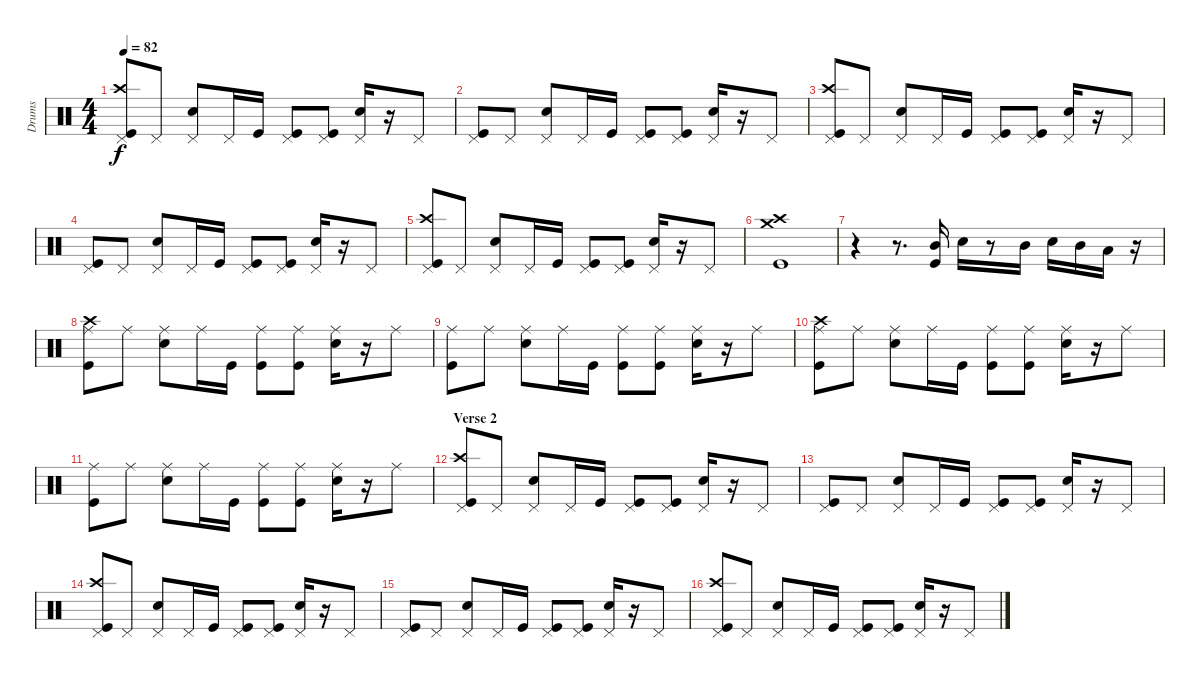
\track ("Drums" "Drums") {instrument percussion}
\staff {score}
\articulation defaults
\ts (4 4)
\tempo 82
\clef neutral
\ks c
("Kick (hit)" "Crash high (hit)" "Pedal Hi-Hat (hit)").8{dy f} "Pedal Hi-Hat (hit)".8 ("Electric Snare (hit)" "Pedal Hi-Hat (hit)").8 "Pedal Hi-Hat (hit)".16 "Kick (hit)".16 ("Kick (hit)" "Pedal Hi-Hat (hit)").8 ("Kick (hit)" "Pedal Hi-Hat (hit)").8 ("Electric Snare (hit)" "Pedal Hi-Hat (hit)").16 r.16 "Pedal Hi-Hat (hit)".8 |
("Kick (hit)" "Pedal Hi-Hat (hit)").8 "Pedal Hi-Hat (hit)".8 ("Electric Snare (hit)" "Pedal Hi-Hat (hit)").8 "Pedal Hi-Hat (hit)".16 "Kick (hit)".16 ("Kick (hit)" "Pedal Hi-Hat (hit)").8 ("Kick (hit)" "Pedal Hi-Hat (hit)").8 ("Electric Snare (hit)" "Pedal Hi-Hat (hit)").16 r.16 "Pedal Hi-Hat (hit)".8 |
("Kick (hit)" "Crash high (hit)" "Pedal Hi-Hat (hit)").8 "Pedal Hi-Hat (hit)".8 ("Electric Snare (hit)" "Pedal Hi-Hat (hit)").8 "Pedal Hi-Hat (hit)".16 "Kick (hit)".16 ("Kick (hit)" "Pedal Hi-Hat (hit)").8 ("Kick (hit)" "Pedal Hi-Hat (hit)").8 ("Electric Snare (hit)" "Pedal Hi-Hat (hit)").16 r.16 "Pedal Hi-Hat (hit)".8 |
("Kick (hit)" "Pedal Hi-Hat (hit)").8 "Pedal Hi-Hat (hit)".8 ("Electric Snare (hit)" "Pedal Hi-Hat (hit)").8 "Pedal Hi-Hat (hit)".16 "Kick (hit)".16 ("Kick (hit)" "Pedal Hi-Hat (hit)").8 ("Kick (hit)" "Pedal Hi-Hat (hit)").8 ("Electric Snare (hit)" "Pedal Hi-Hat (hit)").16 r.16 "Pedal Hi-Hat (hit)".8 |
("Kick (hit)" "Crash high (hit)" "Pedal Hi-Hat (hit)").8 "Pedal Hi-Hat (hit)".8 ("Electric Snare (hit)" "Pedal Hi-Hat (hit)").8 "Pedal Hi-Hat (hit)".16 "Kick (hit)".16 ("Kick (hit)" "Pedal Hi-Hat (hit)").8 ("Kick (hit)" "Pedal Hi-Hat (hit)").8 ("Electric Snare (hit)" "Pedal Hi-Hat (hit)").16 r.16 "Pedal Hi-Hat (hit)".8 |
("Kick (hit)" "Crash high (hit)" "Crash medium (hit)").1 |
r.4 r.8{d} ("Kick (hit)" "Mid Tom (hit)").16 "Electric Snare (hit)".16 r.8 "Mid Tom (hit)".16 "Electric Snare (hit)".16 "Mid Tom (hit)".16 "Low Tom (hit)".16 r.16 |
("Kick (hit)" "Crash high (hit)" "Ride (middle)").8 "Ride (middle)".8 ("Electric Snare (hit)" "Ride (middle)").8 "Ride (middle)".16 "Kick (hit)".16 ("Kick (hit)" "Ride (middle)").8 ("Kick (hit)" "Ride (middle)").8 ("Electric Snare (hit)" "Ride (middle)").16 r.16 "Ride (middle)".8 |
("Kick (hit)" "Ride (middle)").8 "Ride (middle)".8 ("Electric Snare (hit)" "Ride (middle)").8 "Ride (middle)".16 "Kick (hit)".16 ("Kick (hit)" "Ride (middle)").8 ("Kick (hit)" "Ride (middle)").8 ("Electric Snare (hit)" "Ride (middle)").16 r.16 "Ride (middle)".8 |
("Kick (hit)" "Crash high (hit)" "Ride (middle)").8 "Ride (middle)".8 ("Electric Snare (hit)" "Ride (middle)").8 "Ride (middle)".16 "Kick (hit)".16 ("Kick (hit)" "Ride (middle)").8 ("Kick (hit)" "Ride (middle)").8 ("Electric Snare (hit)" "Ride (middle)").16 r.16 "Ride (middle)".8 |
("Kick (hit)" "Ride (middle)").8 "Ride (middle)".8 ("Electric Snare (hit)" "Ride (middle)").8 "Ride (middle)".16 "Kick (hit)".16 ("Kick (hit)" "Ride (middle)").8 ("Kick (hit)" "Ride (middle)").8 ("Electric Snare (hit)" "Ride (middle)").16 r.16 "Ride (middle)".8 |
\section ("" "Verse 2")
("Kick (hit)" "Crash high (hit)" "Pedal Hi-Hat (hit)").8 "Pedal Hi-Hat (hit)".8 ("Electric Snare (hit)" "Pedal Hi-Hat (hit)").8 "Pedal Hi-Hat (hit)".16 "Kick (hit)".16 ("Kick (hit)" "Pedal Hi-Hat (hit)").8 ("Kick (hit)" "Pedal Hi-Hat (hit)").8 ("Electric Snare (hit)" "Pedal Hi-Hat (hit)").16 r.16 "Pedal Hi-Hat (hit)".8 |
("Kick (hit)" "Pedal Hi-Hat (hit)").8 "Pedal Hi-Hat (hit)".8 ("Electric Snare (hit)" "Pedal Hi-Hat (hit)").8 "Pedal Hi-Hat (hit)".16 "Kick (hit)".16 ("Kick (hit)" "Pedal Hi-Hat (hit)").8 ("Kick (hit)" "Pedal Hi-Hat (hit)").8 ("Electric Snare (hit)" "Pedal Hi-Hat (hit)").16 r.16 "Pedal Hi-Hat (hit)".8 |
("Kick (hit)" "Crash high (hit)" "Pedal Hi-Hat (hit)").8 "Pedal Hi-Hat (hit)".8 ("Electric Snare (hit)" "Pedal Hi-Hat (hit)").8 "Pedal Hi-Hat (hit)".16 "Kick (hit)".16 ("Kick (hit)" "Pedal Hi-Hat (hit)").8 ("Kick (hit)" "Pedal Hi-Hat (hit)").8 ("Electric Snare (hit)" "Pedal Hi-Hat (hit)").16 r.16 "Pedal Hi-Hat (hit)".8 |
("Kick (hit)" "Pedal Hi-Hat (hit)").8 "Pedal Hi-Hat (hit)".8 ("Electric Snare (hit)" "Pedal Hi-Hat (hit)").8 "Pedal Hi-Hat (hit)".16 "Kick (hit)".16 ("Kick (hit)" "Pedal Hi-Hat (hit)").8 ("Kick (hit)" "Pedal Hi-Hat (hit)").8 ("Electric Snare (hit)" "Pedal Hi-Hat (hit)").16 r.16 "Pedal Hi-Hat (hit)".8 |
("Kick (hit)" "Crash high (hit)" "Pedal Hi-Hat (hit)").8 "Pedal Hi-Hat (hit)".8 ("Electric Snare (hit)" "Pedal Hi-Hat (hit)").8 "Pedal Hi-Hat (hit)".16 "Kick (hit)".16 ("Kick (hit)" "Pedal Hi-Hat (hit)").8 ("Kick (hit)" "Pedal Hi-Hat (hit)").8 ("Electric Snare (hit)" "Pedal Hi-Hat (hit)").16 r.16 "Pedal Hi-Hat (hit)".8
